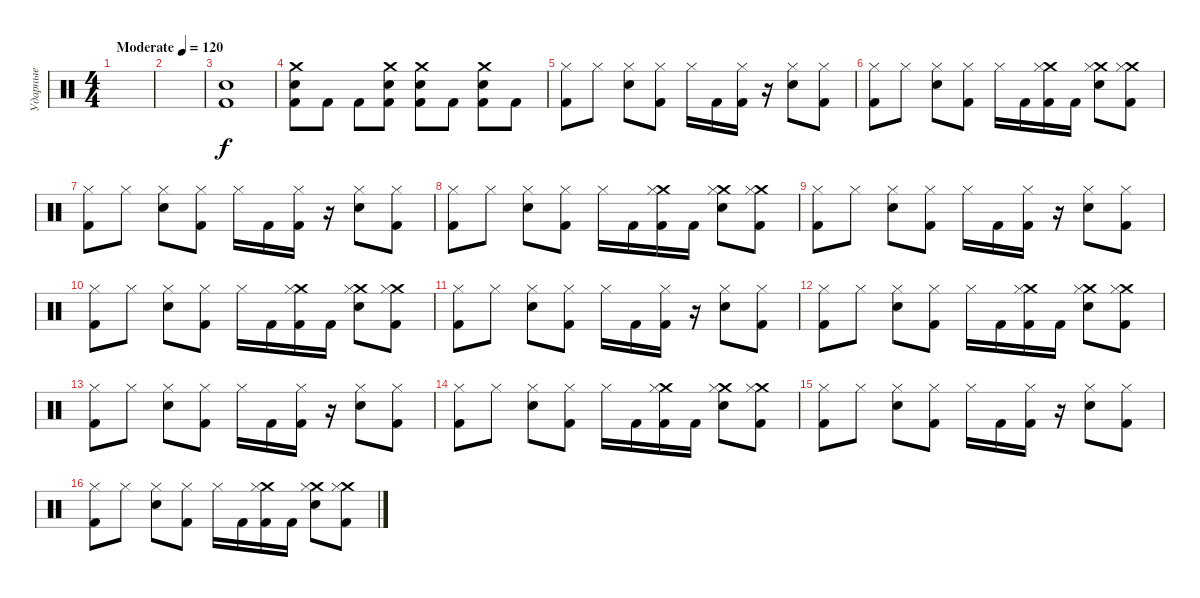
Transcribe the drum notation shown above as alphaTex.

\track ("Ударные" "Ударные") {instrument percussion}
\staff {score}
\articulation defaults
\ts (4 4)
\tempo (120 "Moderate")
\clef neutral
\ks c
|
|
("Kick (hit) 2" "Electric Snare (hit)").1 |
("Crash medium (hit)" "Kick (hit) 2" "Electric Snare (hit)").8 "Kick (hit) 2".8 "Kick (hit) 2".8 ("Crash medium (hit)" "Kick (hit) 2" "Electric Snare (hit)").8 ("Crash medium (hit)" "Kick (hit) 2" "Electric Snare (hit)").8 "Kick (hit) 2".8 ("Crash medium (hit)" "Kick (hit) 2" "Electric Snare (hit)").8 "Kick (hit) 2".8 |
("Hi-Hat (closed)" "Kick (hit) 2").8 "Hi-Hat (closed)".8 ("Hi-Hat (closed)" "Electric Snare (hit)").8 ("Hi-Hat (closed)" "Kick (hit) 2").8 "Hi-Hat (closed)".16 "Kick (hit) 2".16 ("Hi-Hat (closed)" "Kick (hit) 2").16 r.16 ("Hi-Hat (closed)" "Electric Snare (hit)").8 ("Hi-Hat (closed)" "Kick (hit) 2").8 |
("Hi-Hat (closed)" "Kick (hit) 2").8 "Hi-Hat (closed)".8 ("Hi-Hat (closed)" "Electric Snare (hit)").8 ("Hi-Hat (closed)" "Kick (hit) 2").8 "Hi-Hat (closed)".16 "Kick (hit) 2".16 ("Crash medium (hit)" "Hi-Hat (closed)" "Kick (hit) 2").16 "Kick (hit) 2".16 ("Crash medium (hit)" "Hi-Hat (closed)" "Electric Snare (hit)").8 ("Crash medium (hit)" "Hi-Hat (closed)" "Kick (hit) 2").8 |
("Hi-Hat (closed)" "Kick (hit) 2").8 "Hi-Hat (closed)".8 ("Hi-Hat (closed)" "Electric Snare (hit)").8 ("Hi-Hat (closed)" "Kick (hit) 2").8 "Hi-Hat (closed)".16 "Kick (hit) 2".16 ("Hi-Hat (closed)" "Kick (hit) 2").16 r.16 ("Hi-Hat (closed)" "Electric Snare (hit)").8 ("Hi-Hat (closed)" "Kick (hit) 2").8 |
("Hi-Hat (closed)" "Kick (hit) 2").8 "Hi-Hat (closed)".8 ("Hi-Hat (closed)" "Electric Snare (hit)").8 ("Hi-Hat (closed)" "Kick (hit) 2").8 "Hi-Hat (closed)".16 "Kick (hit) 2".16 ("Crash medium (hit)" "Hi-Hat (closed)" "Kick (hit) 2").16 "Kick (hit) 2".16 ("Crash medium (hit)" "Hi-Hat (closed)" "Electric Snare (hit)").8 ("Crash medium (hit)" "Hi-Hat (closed)" "Kick (hit) 2").8 |
("Hi-Hat (closed)" "Kick (hit) 2").8 "Hi-Hat (closed)".8 ("Hi-Hat (closed)" "Electric Snare (hit)").8 ("Hi-Hat (closed)" "Kick (hit) 2").8 "Hi-Hat (closed)".16 "Kick (hit) 2".16 ("Hi-Hat (closed)" "Kick (hit) 2").16 r.16 ("Hi-Hat (closed)" "Electric Snare (hit)").8 ("Hi-Hat (closed)" "Kick (hit) 2").8 |
("Hi-Hat (closed)" "Kick (hit) 2").8 "Hi-Hat (closed)".8 ("Hi-Hat (closed)" "Electric Snare (hit)").8 ("Hi-Hat (closed)" "Kick (hit) 2").8 "Hi-Hat (closed)".16 "Kick (hit) 2".16 ("Crash medium (hit)" "Hi-Hat (closed)" "Kick (hit) 2").16 "Kick (hit) 2".16 ("Crash medium (hit)" "Hi-Hat (closed)" "Electric Snare (hit)").8 ("Crash medium (hit)" "Hi-Hat (closed)" "Kick (hit) 2").8 |
("Hi-Hat (closed)" "Kick (hit) 2").8 "Hi-Hat (closed)".8 ("Hi-Hat (closed)" "Electric Snare (hit)").8 ("Hi-Hat (closed)" "Kick (hit) 2").8 "Hi-Hat (closed)".16 "Kick (hit) 2".16 ("Hi-Hat (closed)" "Kick (hit) 2").16 r.16 ("Hi-Hat (closed)" "Electric Snare (hit)").8 ("Hi-Hat (closed)" "Kick (hit) 2").8 |
("Hi-Hat (closed)" "Kick (hit) 2").8 "Hi-Hat (closed)".8 ("Hi-Hat (closed)" "Electric Snare (hit)").8 ("Hi-Hat (closed)" "Kick (hit) 2").8 "Hi-Hat (closed)".16 "Kick (hit) 2".16 ("Crash medium (hit)" "Hi-Hat (closed)" "Kick (hit) 2").16 "Kick (hit) 2".16 ("Crash medium (hit)" "Hi-Hat (closed)" "Electric Snare (hit)").8 ("Crash medium (hit)" "Hi-Hat (closed)" "Kick (hit) 2").8 |
("Hi-Hat (closed)" "Kick (hit) 2").8 "Hi-Hat (closed)".8 ("Hi-Hat (closed)" "Electric Snare (hit)").8 ("Hi-Hat (closed)" "Kick (hit) 2").8 "Hi-Hat (closed)".16 "Kick (hit) 2".16 ("Hi-Hat (closed)" "Kick (hit) 2").16 r.16 ("Hi-Hat (closed)" "Electric Snare (hit)").8 ("Hi-Hat (closed)" "Kick (hit) 2").8 |
("Hi-Hat (closed)" "Kick (hit) 2").8 "Hi-Hat (closed)".8 ("Hi-Hat (closed)" "Electric Snare (hit)").8 ("Hi-Hat (closed)" "Kick (hit) 2").8 "Hi-Hat (closed)".16 "Kick (hit) 2".16 ("Crash medium (hit)" "Hi-Hat (closed)" "Kick (hit) 2").16 "Kick (hit) 2".16 ("Crash medium (hit)" "Hi-Hat (closed)" "Electric Snare (hit)").8 ("Crash medium (hit)" "Hi-Hat (closed)" "Kick (hit) 2").8 |
("Hi-Hat (closed)" "Kick (hit) 2").8 "Hi-Hat (closed)".8 ("Hi-Hat (closed)" "Electric Snare (hit)").8 ("Hi-Hat (closed)" "Kick (hit) 2").8 "Hi-Hat (closed)".16 "Kick (hit) 2".16 ("Hi-Hat (closed)" "Kick (hit) 2").16 r.16 ("Hi-Hat (closed)" "Electric Snare (hit)").8 ("Hi-Hat (closed)" "Kick (hit) 2").8 |
("Hi-Hat (closed)" "Kick (hit) 2").8 "Hi-Hat (closed)".8 ("Hi-Hat (closed)" "Electric Snare (hit)").8 ("Hi-Hat (closed)" "Kick (hit) 2").8 "Hi-Hat (closed)".16 "Kick (hit) 2".16 ("Crash medium (hit)" "Hi-Hat (closed)" "Kick (hit) 2").16 "Kick (hit) 2".16 ("Crash medium (hit)" "Hi-Hat (closed)" "Electric Snare (hit)").8 ("Crash medium (hit)" "Hi-Hat (closed)" "Kick (hit) 2").8
